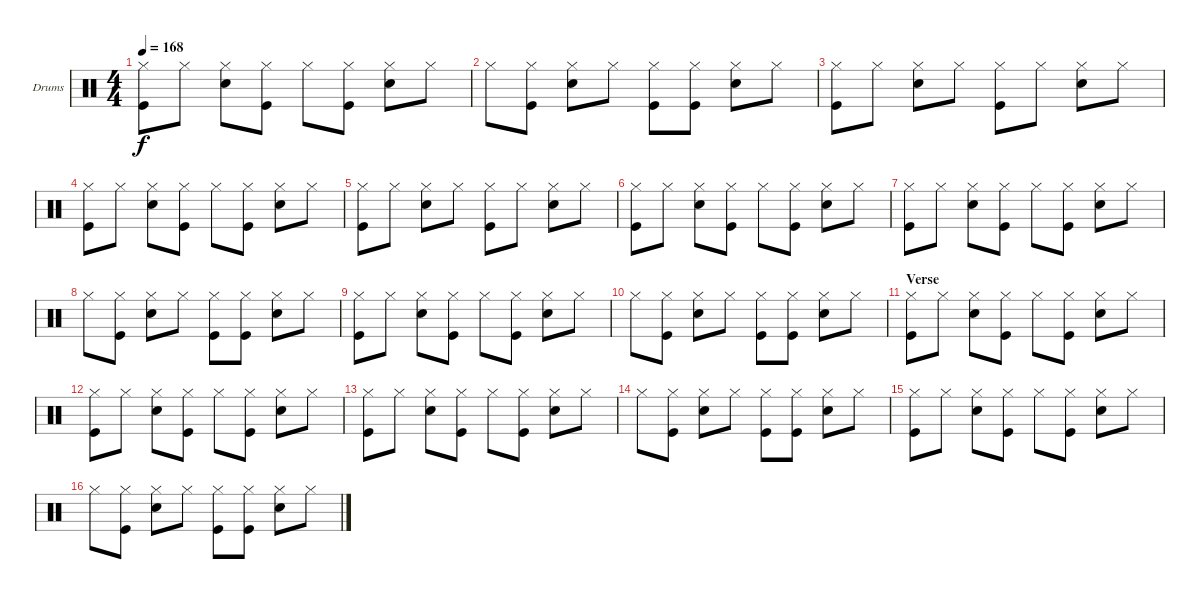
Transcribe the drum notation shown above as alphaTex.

\bracketExtendMode groupsimilarinstruments
\firstSystemTrackNameOrientation horizontal
\otherSystemsTrackNameOrientation horizontal
\track ("Drumkit" "Drums") {instrument percussion}
\staff {score}
\articulation defaults
\ts (4 4)
\tempo 168
\clef neutral
\ks c
("Kick (hit)" "Hi-Hat (closed)").8{dy f} "Hi-Hat (closed)".8 ("Snare (hit) 2" "Hi-Hat (closed)").8 ("Kick (hit)" "Hi-Hat (closed)").8 "Hi-Hat (closed)".8 ("Kick (hit)" "Hi-Hat (closed)").8 ("Snare (hit) 2" "Hi-Hat (closed)").8 "Hi-Hat (closed)".8 |
"Hi-Hat (closed)".8 ("Hi-Hat (closed)" "Kick (hit)").8 ("Snare (hit) 2" "Hi-Hat (closed)").8 "Hi-Hat (closed)".8 ("Hi-Hat (closed)" "Kick (hit)").8 ("Kick (hit)" "Hi-Hat (closed)").8 ("Snare (hit) 2" "Hi-Hat (closed)").8 "Hi-Hat (closed)".8 |
("Kick (hit)" "Hi-Hat (closed)").8 "Hi-Hat (closed)".8 ("Snare (hit) 2" "Hi-Hat (closed)").8 "Hi-Hat (closed)".8 ("Hi-Hat (closed)" "Kick (hit)").8 "Hi-Hat (closed)".8 ("Snare (hit) 2" "Hi-Hat (closed)").8 "Hi-Hat (closed)".8 |
("Kick (hit)" "Hi-Hat (closed)").8 "Hi-Hat (closed)".8 ("Snare (hit) 2" "Hi-Hat (closed)").8 ("Kick (hit)" "Hi-Hat (closed)").8 "Hi-Hat (closed)".8 ("Kick (hit)" "Hi-Hat (closed)").8 ("Snare (hit) 2" "Hi-Hat (closed)").8 "Hi-Hat (closed)".8 |
("Kick (hit)" "Hi-Hat (closed)").8 "Hi-Hat (closed)".8 ("Snare (hit) 2" "Hi-Hat (closed)").8 "Hi-Hat (closed)".8 ("Hi-Hat (closed)" "Kick (hit)").8 "Hi-Hat (closed)".8 ("Snare (hit) 2" "Hi-Hat (closed)").8 "Hi-Hat (closed)".8 |
("Kick (hit)" "Hi-Hat (closed)").8 "Hi-Hat (closed)".8 ("Snare (hit) 2" "Hi-Hat (closed)").8 ("Kick (hit)" "Hi-Hat (closed)").8 "Hi-Hat (closed)".8 ("Kick (hit)" "Hi-Hat (closed)").8 ("Snare (hit) 2" "Hi-Hat (closed)").8 "Hi-Hat (closed)".8 |
("Kick (hit)" "Hi-Hat (closed)").8 "Hi-Hat (closed)".8 ("Snare (hit) 2" "Hi-Hat (closed)").8 ("Kick (hit)" "Hi-Hat (closed)").8 "Hi-Hat (closed)".8 ("Kick (hit)" "Hi-Hat (closed)").8 ("Snare (hit) 2" "Hi-Hat (closed)").8 "Hi-Hat (closed)".8 |
"Hi-Hat (closed)".8 ("Hi-Hat (closed)" "Kick (hit)").8 ("Snare (hit) 2" "Hi-Hat (closed)").8 "Hi-Hat (closed)".8 ("Hi-Hat (closed)" "Kick (hit)").8 ("Kick (hit)" "Hi-Hat (closed)").8 ("Snare (hit) 2" "Hi-Hat (closed)").8 "Hi-Hat (closed)".8 |
("Kick (hit)" "Hi-Hat (closed)").8 "Hi-Hat (closed)".8 ("Snare (hit) 2" "Hi-Hat (closed)").8 ("Kick (hit)" "Hi-Hat (closed)").8 "Hi-Hat (closed)".8 ("Kick (hit)" "Hi-Hat (closed)").8 ("Snare (hit) 2" "Hi-Hat (closed)").8 "Hi-Hat (closed)".8 |
"Hi-Hat (closed)".8 ("Hi-Hat (closed)" "Kick (hit)").8 ("Snare (hit) 2" "Hi-Hat (closed)").8 "Hi-Hat (closed)".8 ("Hi-Hat (closed)" "Kick (hit)").8 ("Kick (hit)" "Hi-Hat (closed)").8 ("Snare (hit) 2" "Hi-Hat (closed)").8 "Hi-Hat (closed)".8 |
\section ("" "Verse")
("Kick (hit)" "Hi-Hat (closed)").8 "Hi-Hat (closed)".8 ("Snare (hit) 2" "Hi-Hat (closed)").8 ("Kick (hit)" "Hi-Hat (closed)").8 "Hi-Hat (closed)".8 ("Kick (hit)" "Hi-Hat (closed)").8 ("Snare (hit) 2" "Hi-Hat (closed)").8 "Hi-Hat (closed)".8 |
("Kick (hit)" "Hi-Hat (closed)").8 "Hi-Hat (closed)".8 ("Snare (hit) 2" "Hi-Hat (closed)").8 ("Kick (hit)" "Hi-Hat (closed)").8 "Hi-Hat (closed)".8 ("Kick (hit)" "Hi-Hat (closed)").8 ("Snare (hit) 2" "Hi-Hat (closed)").8 "Hi-Hat (closed)".8 |
("Kick (hit)" "Hi-Hat (closed)").8 "Hi-Hat (closed)".8 ("Snare (hit) 2" "Hi-Hat (closed)").8 ("Kick (hit)" "Hi-Hat (closed)").8 "Hi-Hat (closed)".8 ("Kick (hit)" "Hi-Hat (closed)").8 ("Snare (hit) 2" "Hi-Hat (closed)").8 "Hi-Hat (closed)".8 |
"Hi-Hat (closed)".8 ("Hi-Hat (closed)" "Kick (hit)").8 ("Snare (hit) 2" "Hi-Hat (closed)").8 "Hi-Hat (closed)".8 ("Hi-Hat (closed)" "Kick (hit)").8 ("Kick (hit)" "Hi-Hat (closed)").8 ("Snare (hit) 2" "Hi-Hat (closed)").8 "Hi-Hat (closed)".8 |
("Kick (hit)" "Hi-Hat (closed)").8 "Hi-Hat (closed)".8 ("Snare (hit) 2" "Hi-Hat (closed)").8 ("Kick (hit)" "Hi-Hat (closed)").8 "Hi-Hat (closed)".8 ("Kick (hit)" "Hi-Hat (closed)").8 ("Snare (hit) 2" "Hi-Hat (closed)").8 "Hi-Hat (closed)".8 |
"Hi-Hat (closed)".8 ("Hi-Hat (closed)" "Kick (hit)").8 ("Snare (hit) 2" "Hi-Hat (closed)").8 "Hi-Hat (closed)".8 ("Hi-Hat (closed)" "Kick (hit)").8 ("Kick (hit)" "Hi-Hat (closed)").8 ("Snare (hit) 2" "Hi-Hat (closed)").8 "Hi-Hat (closed)".8
